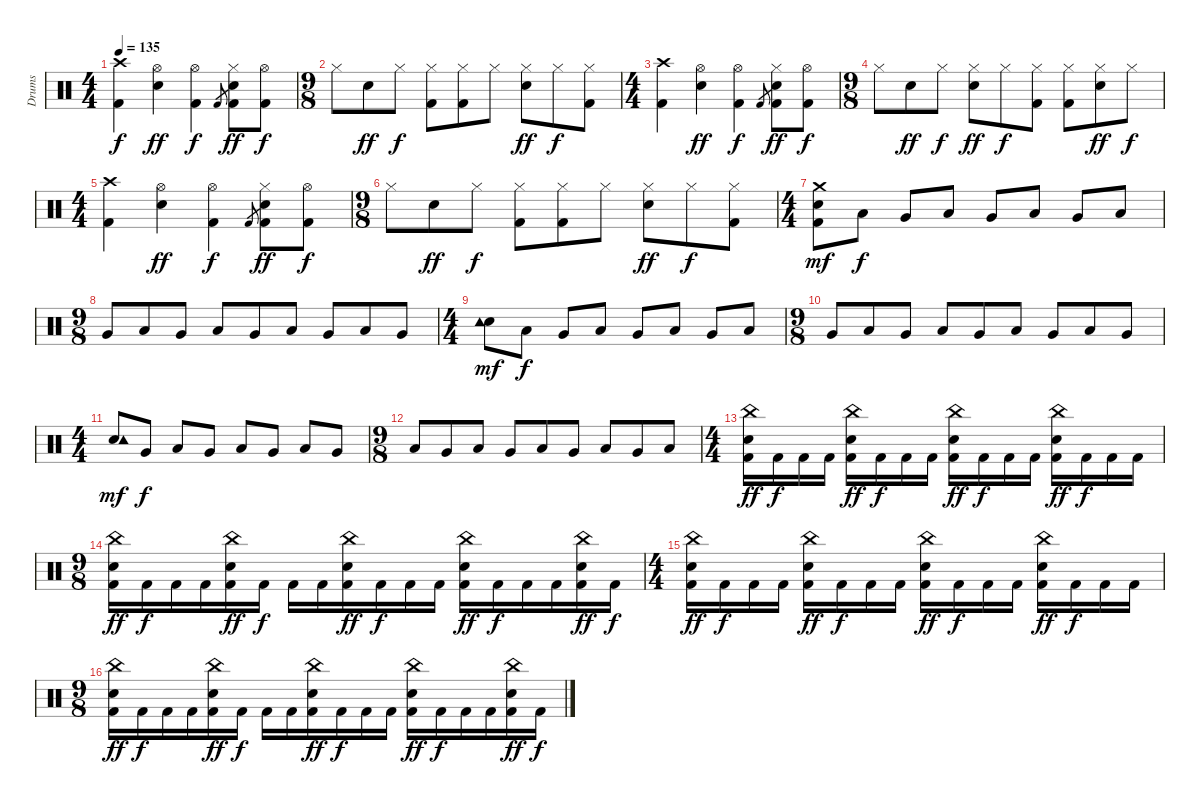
\track ("Drums" "Drums") {instrument percussion}
\staff {score}
\articulation defaults
\ts (4 4)
\tempo 135
\clef neutral
\ks c
("Kick (hit) 2" "Crash high (hit)").4{dy f} ("Electric Snare (hit)" "Hi-Hat (open)").4{dy ff} ("Kick (hit) 2" "Hi-Hat (open)").4{dy f} "Kick (hit) 2".8{gr} ("Kick (hit) 2" "Electric Snare (hit)" "Hi-Hat (closed)").8{dy ff} ("Kick (hit) 2" "Hi-Hat (open)").8{dy f} |
\ts (9 8)
"Hi-Hat (closed)".8 "Electric Snare (hit)".8{dy ff} "Hi-Hat (closed)".8{dy f} ("Kick (hit) 2" "Hi-Hat (closed)").8 ("Kick (hit) 2" "Hi-Hat (closed)").8 "Hi-Hat (closed)".8 ("Electric Snare (hit)" "Hi-Hat (closed)").8{dy ff} "Hi-Hat (closed)".8{dy f} ("Kick (hit) 2" "Hi-Hat (closed)").8 |
\ts (4 4)
("Kick (hit) 2" "Crash high (hit)").4 ("Electric Snare (hit)" "Hi-Hat (open)").4{dy ff} ("Kick (hit) 2" "Hi-Hat (open)").4{dy f} "Kick (hit) 2".8{gr} ("Kick (hit) 2" "Electric Snare (hit)" "Hi-Hat (closed)").8{dy ff} ("Kick (hit) 2" "Hi-Hat (open)").8{dy f} |
\ts (9 8)
"Hi-Hat (closed)".8 "Electric Snare (hit)".8{dy ff} "Hi-Hat (closed)".8{dy f} ("Electric Snare (hit)" "Hi-Hat (closed)").8{dy ff} "Hi-Hat (closed)".8{dy f} ("Kick (hit) 2" "Hi-Hat (closed)").8 ("Kick (hit) 2" "Hi-Hat (closed)").8 ("Electric Snare (hit)" "Hi-Hat (closed)").8{dy ff} "Hi-Hat (closed)".8{dy f} |
\ts (4 4)
("Kick (hit) 2" "Crash high (hit)").4 ("Electric Snare (hit)" "Hi-Hat (open)").4{dy ff} ("Kick (hit) 2" "Hi-Hat (open)").4{dy f} "Kick (hit) 2".8{gr} ("Kick (hit) 2" "Electric Snare (hit)" "Hi-Hat (closed)").8{dy ff} ("Kick (hit) 2" "Hi-Hat (open)").8{dy f} |
\ts (9 8)
"Hi-Hat (closed)".8 "Electric Snare (hit)".8{dy ff} "Hi-Hat (closed)".8{dy f} ("Kick (hit) 2" "Hi-Hat (closed)").8 ("Kick (hit) 2" "Hi-Hat (closed)").8 "Hi-Hat (closed)".8 ("Electric Snare (hit)" "Hi-Hat (closed)").8{dy ff} "Hi-Hat (closed)".8{dy f} ("Kick (hit) 2" "Hi-Hat (closed)").8 |
\ts (4 4)
("Kick (hit) 2" "Electric Snare (hit)" "Crash medium (hit)").8{dy mf} "Low Floor Tom (hit)".8{dy f} "Very Low Tom (hit)".8 "Low Floor Tom (hit)".8 "Very Low Tom (hit)".8 "Low Floor Tom (hit)".8 "Very Low Tom (hit)".8 "Low Floor Tom (hit)".8 |
\ts (9 8)
"Very Low Tom (hit)".8 "Low Floor Tom (hit)".8 "Very Low Tom (hit)".8 "Low Floor Tom (hit)".8 "Very Low Tom (hit)".8 "Low Floor Tom (hit)".8 "Very Low Tom (hit)".8 "Low Floor Tom (hit)".8 "Very Low Tom (hit)".8 |
\ts (4 4)
("Electric Snare (hit)" "Tambourine (hit)").8{dy mf} "Low Floor Tom (hit)".8{dy f} "Very Low Tom (hit)".8 "Low Floor Tom (hit)".8 "Very Low Tom (hit)".8 "Low Floor Tom (hit)".8 "Very Low Tom (hit)".8 "Low Floor Tom (hit)".8 |
\ts (9 8)
"Very Low Tom (hit)".8 "Low Floor Tom (hit)".8 "Very Low Tom (hit)".8 "Low Floor Tom (hit)".8 "Very Low Tom (hit)".8 "Low Floor Tom (hit)".8 "Very Low Tom (hit)".8 "Low Floor Tom (hit)".8 "Very Low Tom (hit)".8 |
\ts (4 4)
("Electric Snare (hit)" "Tambourine (hit)").8{dy mf} "Very Low Tom (hit)".8{dy f} "Low Floor Tom (hit)".8 "Very Low Tom (hit)".8 "Low Floor Tom (hit)".8 "Very Low Tom (hit)".8 "Low Floor Tom (hit)".8 "Very Low Tom (hit)".8 |
\ts (9 8)
"Low Floor Tom (hit)".8 "Very Low Tom (hit)".8 "Low Floor Tom (hit)".8 "Very Low Tom (hit)".8 "Low Floor Tom (hit)".8 "Very Low Tom (hit)".8 "Low Floor Tom (hit)".8 "Very Low Tom (hit)".8 "Low Floor Tom (hit)".8 |
\ts (4 4)
("Kick (hit) 2" "Electric Snare (hit)" "China (hit)").16{dy ff} "Kick (hit) 2".16{dy f} "Kick (hit) 2".16 "Kick (hit) 2".16 ("Kick (hit) 2" "Electric Snare (hit)" "China (hit)").16{dy ff} "Kick (hit) 2".16{dy f} "Kick (hit) 2".16 "Kick (hit) 2".16 ("Kick (hit) 2" "Electric Snare (hit)" "China (hit)").16{dy ff} "Kick (hit) 2".16{dy f} "Kick (hit) 2".16 "Kick (hit) 2".16 ("Kick (hit) 2" "Electric Snare (hit)" "China (hit)").16{dy ff} "Kick (hit) 2".16{dy f} "Kick (hit) 2".16 "Kick (hit) 2".16 |
\ts (9 8)
("Kick (hit) 2" "Electric Snare (hit)" "China (hit)").16{dy ff} "Kick (hit) 2".16{dy f} "Kick (hit) 2".16 "Kick (hit) 2".16 ("Kick (hit) 2" "Electric Snare (hit)" "China (hit)").16{dy ff} "Kick (hit) 2".16{dy f} "Kick (hit) 2".16 "Kick (hit) 2".16 ("Kick (hit) 2" "Electric Snare (hit)" "China (hit)").16{dy ff} "Kick (hit) 2".16{dy f} "Kick (hit) 2".16 "Kick (hit) 2".16 ("Kick (hit) 2" "Electric Snare (hit)" "China (hit)").16{dy ff} "Kick (hit) 2".16{dy f} "Kick (hit) 2".16 "Kick (hit) 2".16 ("Kick (hit) 2" "Electric Snare (hit)" "China (hit)").16{dy ff} "Kick (hit) 2".16{dy f} |
\ts (4 4)
("Kick (hit) 2" "Electric Snare (hit)" "China (hit)").16{dy ff} "Kick (hit) 2".16{dy f} "Kick (hit) 2".16 "Kick (hit) 2".16 ("Kick (hit) 2" "Electric Snare (hit)" "China (hit)").16{dy ff} "Kick (hit) 2".16{dy f} "Kick (hit) 2".16 "Kick (hit) 2".16 ("Kick (hit) 2" "Electric Snare (hit)" "China (hit)").16{dy ff} "Kick (hit) 2".16{dy f} "Kick (hit) 2".16 "Kick (hit) 2".16 ("Kick (hit) 2" "Electric Snare (hit)" "China (hit)").16{dy ff} "Kick (hit) 2".16{dy f} "Kick (hit) 2".16 "Kick (hit) 2".16 |
\ts (9 8)
("Kick (hit) 2" "Electric Snare (hit)" "China (hit)").16{dy ff} "Kick (hit) 2".16{dy f} "Kick (hit) 2".16 "Kick (hit) 2".16 ("Kick (hit) 2" "Electric Snare (hit)" "China (hit)").16{dy ff} "Kick (hit) 2".16{dy f} "Kick (hit) 2".16 "Kick (hit) 2".16 ("Kick (hit) 2" "Electric Snare (hit)" "China (hit)").16{dy ff} "Kick (hit) 2".16{dy f} "Kick (hit) 2".16 "Kick (hit) 2".16 ("Kick (hit) 2" "Electric Snare (hit)" "China (hit)").16{dy ff} "Kick (hit) 2".16{dy f} "Kick (hit) 2".16 "Kick (hit) 2".16 ("Kick (hit) 2" "Electric Snare (hit)" "China (hit)").16{dy ff} "Kick (hit) 2".16{dy f}
